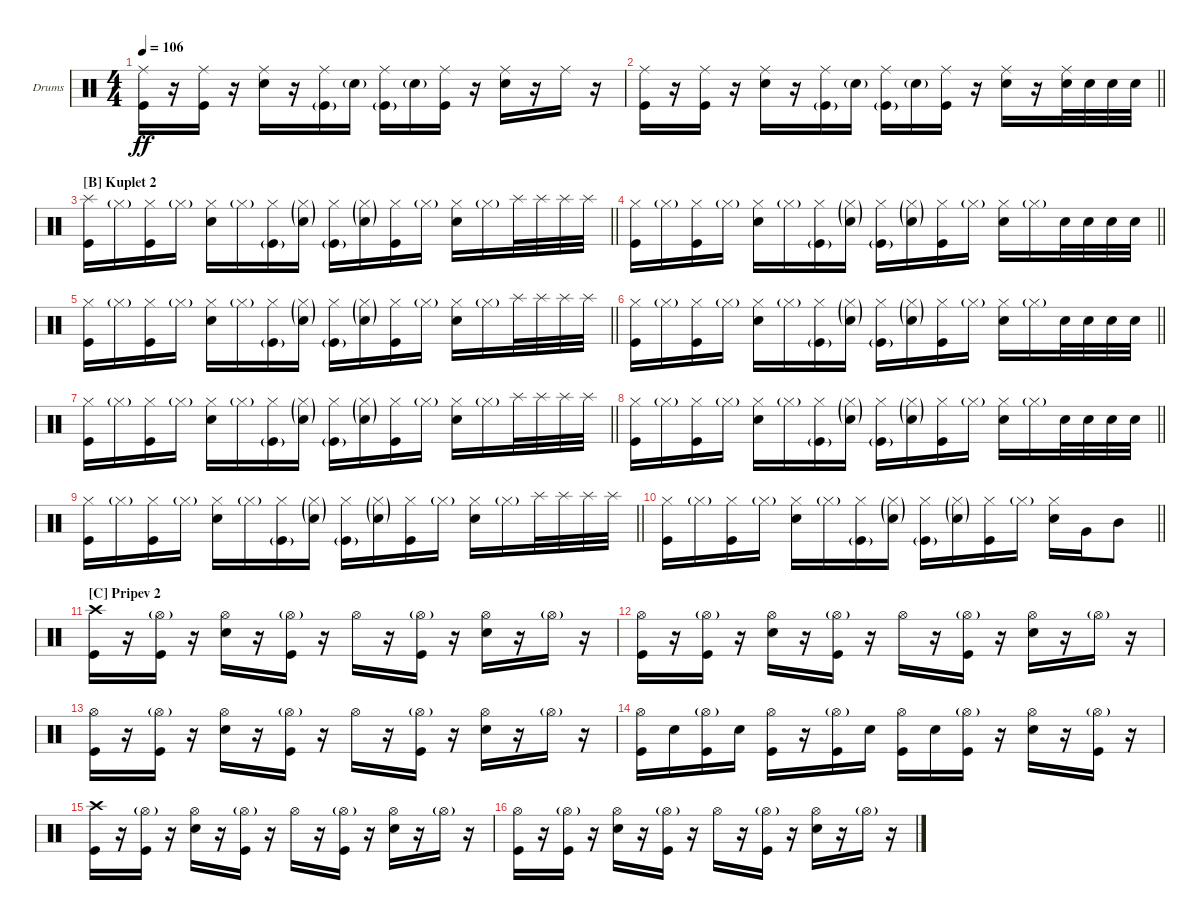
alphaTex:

\bracketExtendMode groupsimilarinstruments
\firstSystemTrackNameOrientation horizontal
\otherSystemsTrackNameOrientation horizontal
\track ("Udarnyye | A. Storozhuk" "Drums") {instrument percussion}
\staff {score}
\articulation defaults
\ts (4 4)
\tempo 106
\clef neutral
\ks c
("Ride (middle)" "Kick (hit)").16{dy ff} r.16 ("Ride (middle)" "Kick (hit)").16 r.16 ("Ride (middle)" "Snare (hit) 2").16 r.16 ("Ride (middle)" "Kick (hit)"{g}).16 "Snare (hit) 2"{g}.16 ("Ride (middle)" "Kick (hit)"{g}).16 "Snare (hit) 2"{g}.16 ("Ride (middle)" "Kick (hit)").16 r.16 ("Ride (middle)" "Snare (hit) 2").16 r.16 "Ride (middle)".16 r.16 |
\barLineRight lightlight
("Ride (middle)" "Kick (hit)").16 r.16 ("Ride (middle)" "Kick (hit)").16 r.16 ("Ride (middle)" "Snare (hit) 2").16 r.16 ("Ride (middle)" "Kick (hit)"{g}).16 "Snare (hit) 2"{g}.16 ("Ride (middle)" "Kick (hit)"{g}).16 "Snare (hit) 2"{g}.16 ("Ride (middle)" "Kick (hit)").16 r.16 ("Ride (middle)" "Snare (hit) 2").16 r.16 ("Ride (middle)" "Snare (hit) 2").32 "Snare (hit) 2".32 "Snare (hit) 2".32 "Snare (hit) 2".32 |
\section ("B" "Kuplet 2")
\barLineRight lightlight
("Splash (hit)" "Kick (hit)").16 "Hi-Hat (closed)"{g}.16 ("Hi-Hat (closed)" "Kick (hit)").16 "Hi-Hat (closed)"{g}.16 ("Hi-Hat (closed)" "Snare (hit) 2").16 "Hi-Hat (closed)"{g}.16 ("Hi-Hat (closed)" "Kick (hit)"{g}).16 ("Hi-Hat (closed)"{g} "Snare (hit) 2"{g}).16 ("Hi-Hat (closed)" "Kick (hit)"{g}).16 ("Hi-Hat (closed)"{g} "Snare (hit) 2"{g}).16 ("Hi-Hat (closed)" "Kick (hit)").16 "Hi-Hat (closed)"{g}.16 ("Hi-Hat (closed)" "Snare (hit) 2").16 "Hi-Hat (closed)"{g}.16 "Splash (hit)".32 "Splash (hit)".32 "Splash (hit)".32 "Splash (hit)".32 |
\barLineRight lightlight
("Hi-Hat (closed)" "Kick (hit)").16 "Hi-Hat (closed)"{g}.16 ("Hi-Hat (closed)" "Kick (hit)").16 "Hi-Hat (closed)"{g}.16 ("Hi-Hat (closed)" "Snare (hit) 2").16 "Hi-Hat (closed)"{g}.16 ("Hi-Hat (closed)" "Kick (hit)"{g}).16 ("Hi-Hat (closed)"{g} "Snare (hit) 2"{g}).16 ("Hi-Hat (closed)" "Kick (hit)"{g}).16 ("Hi-Hat (closed)"{g} "Snare (hit) 2"{g}).16 ("Hi-Hat (closed)" "Kick (hit)").16 "Hi-Hat (closed)"{g}.16 ("Hi-Hat (closed)" "Snare (hit) 2").16 "Hi-Hat (closed)"{g}.16 "Snare (hit) 2".32 "Snare (hit) 2".32 "Snare (hit) 2".32 "Snare (hit) 2".32 |
\barLineRight lightlight
("Hi-Hat (closed)" "Kick (hit)").16 "Hi-Hat (closed)"{g}.16 ("Hi-Hat (closed)" "Kick (hit)").16 "Hi-Hat (closed)"{g}.16 ("Hi-Hat (closed)" "Snare (hit) 2").16 "Hi-Hat (closed)"{g}.16 ("Hi-Hat (closed)" "Kick (hit)"{g}).16 ("Hi-Hat (closed)"{g} "Snare (hit) 2"{g}).16 ("Hi-Hat (closed)" "Kick (hit)"{g}).16 ("Hi-Hat (closed)"{g} "Snare (hit) 2"{g}).16 ("Hi-Hat (closed)" "Kick (hit)").16 "Hi-Hat (closed)"{g}.16 ("Hi-Hat (closed)" "Snare (hit) 2").16 "Hi-Hat (closed)"{g}.16 "Splash (hit)".32 "Splash (hit)".32 "Splash (hit)".32 "Splash (hit)".32 |
\barLineRight lightlight
("Hi-Hat (closed)" "Kick (hit)").16 "Hi-Hat (closed)"{g}.16 ("Hi-Hat (closed)" "Kick (hit)").16 "Hi-Hat (closed)"{g}.16 ("Hi-Hat (closed)" "Snare (hit) 2").16 "Hi-Hat (closed)"{g}.16 ("Hi-Hat (closed)" "Kick (hit)"{g}).16 ("Hi-Hat (closed)"{g} "Snare (hit) 2"{g}).16 ("Hi-Hat (closed)" "Kick (hit)"{g}).16 ("Hi-Hat (closed)"{g} "Snare (hit) 2"{g}).16 ("Hi-Hat (closed)" "Kick (hit)").16 "Hi-Hat (closed)"{g}.16 ("Hi-Hat (closed)" "Snare (hit) 2").16 "Hi-Hat (closed)"{g}.16 "Snare (hit) 2".32 "Snare (hit) 2".32 "Snare (hit) 2".32 "Snare (hit) 2".32 |
\barLineRight lightlight
("Hi-Hat (closed)" "Kick (hit)").16 "Hi-Hat (closed)"{g}.16 ("Hi-Hat (closed)" "Kick (hit)").16 "Hi-Hat (closed)"{g}.16 ("Hi-Hat (closed)" "Snare (hit) 2").16 "Hi-Hat (closed)"{g}.16 ("Hi-Hat (closed)" "Kick (hit)"{g}).16 ("Hi-Hat (closed)"{g} "Snare (hit) 2"{g}).16 ("Hi-Hat (closed)" "Kick (hit)"{g}).16 ("Hi-Hat (closed)"{g} "Snare (hit) 2"{g}).16 ("Hi-Hat (closed)" "Kick (hit)").16 "Hi-Hat (closed)"{g}.16 ("Hi-Hat (closed)" "Snare (hit) 2").16 "Hi-Hat (closed)"{g}.16 "Splash (hit)".32 "Splash (hit)".32 "Splash (hit)".32 "Splash (hit)".32 |
\barLineRight lightlight
("Hi-Hat (closed)" "Kick (hit)").16 "Hi-Hat (closed)"{g}.16 ("Hi-Hat (closed)" "Kick (hit)").16 "Hi-Hat (closed)"{g}.16 ("Hi-Hat (closed)" "Snare (hit) 2").16 "Hi-Hat (closed)"{g}.16 ("Hi-Hat (closed)" "Kick (hit)"{g}).16 ("Hi-Hat (closed)"{g} "Snare (hit) 2"{g}).16 ("Hi-Hat (closed)" "Kick (hit)"{g}).16 ("Hi-Hat (closed)"{g} "Snare (hit) 2"{g}).16 ("Hi-Hat (closed)" "Kick (hit)").16 "Hi-Hat (closed)"{g}.16 ("Hi-Hat (closed)" "Snare (hit) 2").16 "Hi-Hat (closed)"{g}.16 "Snare (hit) 2".32 "Snare (hit) 2".32 "Snare (hit) 2".32 "Snare (hit) 2".32 |
\barLineRight lightlight
("Hi-Hat (closed)" "Kick (hit)").16 "Hi-Hat (closed)"{g}.16 ("Hi-Hat (closed)" "Kick (hit)").16 "Hi-Hat (closed)"{g}.16 ("Hi-Hat (closed)" "Snare (hit) 2").16 "Hi-Hat (closed)"{g}.16 ("Hi-Hat (closed)" "Kick (hit)"{g}).16 ("Hi-Hat (closed)"{g} "Snare (hit) 2"{g}).16 ("Hi-Hat (closed)" "Kick (hit)"{g}).16 ("Hi-Hat (closed)"{g} "Snare (hit) 2"{g}).16 ("Hi-Hat (closed)" "Kick (hit)").16 "Hi-Hat (closed)"{g}.16 ("Hi-Hat (closed)" "Snare (hit) 2").16 "Hi-Hat (closed)"{g}.16 "Splash (hit)".32 "Splash (hit)".32 "Splash (hit)".32 "Splash (hit)".32 |
\barLineRight lightlight
("Hi-Hat (closed)" "Kick (hit)").16 "Hi-Hat (closed)"{g}.16 ("Hi-Hat (closed)" "Kick (hit)").16 "Hi-Hat (closed)"{g}.16 ("Hi-Hat (closed)" "Snare (hit) 2").16 "Hi-Hat (closed)"{g}.16 ("Hi-Hat (closed)" "Kick (hit)"{g}).16 ("Hi-Hat (closed)"{g} "Snare (hit) 2"{g}).16 ("Hi-Hat (closed)" "Kick (hit)"{g}).16 ("Hi-Hat (closed)"{g} "Snare (hit) 2"{g}).16 ("Hi-Hat (closed)" "Kick (hit)").16 "Hi-Hat (closed)"{g}.16 ("Hi-Hat (closed)" "Snare (hit) 2").16 "Very Low Tom (hit)".16 "Mid Tom (hit)".8 |
\section ("C" "Pripev 2")
("Crash high (hit)" "Kick (hit)").16 r.16 ("Hi-Hat (open)"{g} "Kick (hit)").16 r.16 ("Hi-Hat (open)" "Snare (hit) 2").16 r.16 ("Hi-Hat (open)"{g} "Kick (hit)").16 r.16 "Hi-Hat (open)".16 r.16 ("Hi-Hat (open)"{g} "Kick (hit)").16 r.16 ("Hi-Hat (open)" "Snare (hit) 2").16 r.16 "Hi-Hat (open)"{g}.16 r.16 |
("Hi-Hat (open)" "Kick (hit)").16 r.16 ("Hi-Hat (open)"{g} "Kick (hit)").16 r.16 ("Hi-Hat (open)" "Snare (hit) 2").16 r.16 ("Hi-Hat (open)"{g} "Kick (hit)").16 r.16 "Hi-Hat (open)".16 r.16 ("Hi-Hat (open)"{g} "Kick (hit)").16 r.16 ("Hi-Hat (open)" "Snare (hit) 2").16 r.16 "Hi-Hat (open)"{g}.16 r.16 |
("Hi-Hat (open)" "Kick (hit)").16 r.16 ("Hi-Hat (open)"{g} "Kick (hit)").16 r.16 ("Hi-Hat (open)" "Snare (hit) 2").16 r.16 ("Hi-Hat (open)"{g} "Kick (hit)").16 r.16 "Hi-Hat (open)".16 r.16 ("Hi-Hat (open)"{g} "Kick (hit)").16 r.16 ("Hi-Hat (open)" "Snare (hit) 2").16 r.16 "Hi-Hat (open)"{g}.16 r.16 |
("Hi-Hat (open)" "Kick (hit)").16 "Snare (hit) 2".16 ("Hi-Hat (open)"{g} "Kick (hit)").16 "Snare (hit) 2".16 ("Hi-Hat (open)" "Kick (hit)").16 r.16 ("Hi-Hat (open)"{g} "Kick (hit)").16 "Snare (hit) 2".16 ("Hi-Hat (open)" "Kick (hit)").16 "Snare (hit) 2".16 ("Hi-Hat (open)"{g} "Kick (hit)").16 r.16 ("Hi-Hat (open)" "Snare (hit) 2").16 r.16 ("Hi-Hat (open)"{g} "Kick (hit)").16 r.16 |
("Crash high (hit)" "Kick (hit)").16 r.16 ("Hi-Hat (open)"{g} "Kick (hit)").16 r.16 ("Hi-Hat (open)" "Snare (hit) 2").16 r.16 ("Hi-Hat (open)"{g} "Kick (hit)").16 r.16 "Hi-Hat (open)".16 r.16 ("Hi-Hat (open)"{g} "Kick (hit)").16 r.16 ("Hi-Hat (open)" "Snare (hit) 2").16 r.16 "Hi-Hat (open)"{g}.16 r.16 |
("Hi-Hat (open)" "Kick (hit)").16 r.16 ("Hi-Hat (open)"{g} "Kick (hit)").16 r.16 ("Hi-Hat (open)" "Snare (hit) 2").16 r.16 ("Hi-Hat (open)"{g} "Kick (hit)").16 r.16 "Hi-Hat (open)".16 r.16 ("Hi-Hat (open)"{g} "Kick (hit)").16 r.16 ("Hi-Hat (open)" "Snare (hit) 2").16 r.16 "Hi-Hat (open)"{g}.16 r.16
